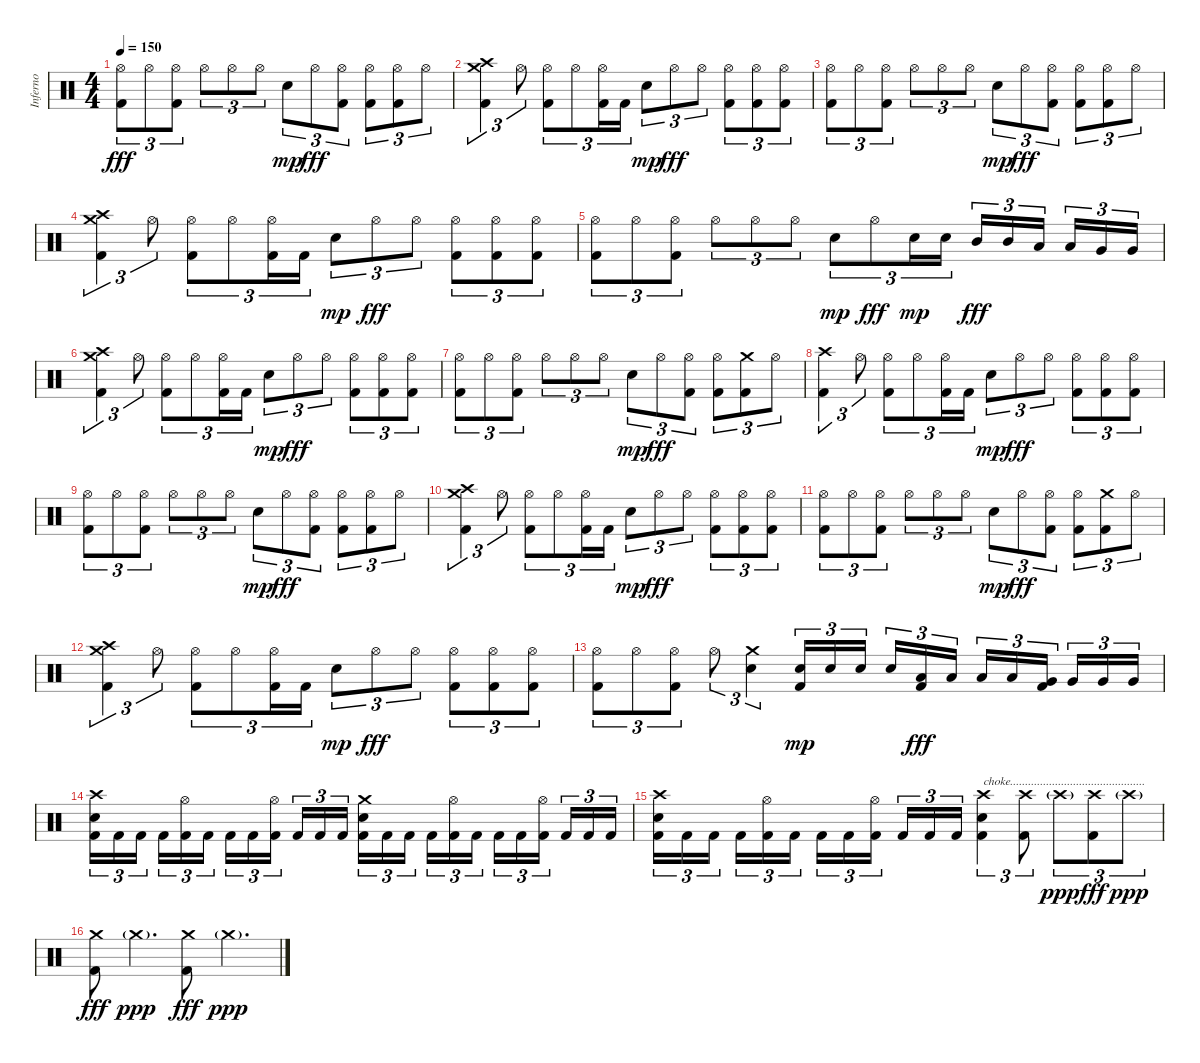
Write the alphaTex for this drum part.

\track ("Inferno" "Inferno") {instrument percussion}
\staff {score}
\articulation defaults
\ts (4 4)
\tempo 150
\clef neutral
\ks c
("Kick (hit) 2" "Hi-Hat (open)").8{tu (3 2) dy fff} "Hi-Hat (open)".8{tu (3 2)} ("Kick (hit) 2" "Hi-Hat (open)").8{tu (3 2)} "Hi-Hat (open)".8{tu (3 2)} "Hi-Hat (open)".8{tu (3 2)} "Hi-Hat (open)".8{tu (3 2)} "Electric Snare (hit)".8{tu (3 2) dy mp} "Hi-Hat (open)".8{tu (3 2) dy fff} ("Kick (hit) 2" "Hi-Hat (open)").8{tu (3 2)} ("Kick (hit) 2" "Hi-Hat (open)").8{tu (3 2)} ("Kick (hit) 2" "Hi-Hat (open)").8{tu (3 2)} "Hi-Hat (open)".8{tu (3 2)} |
("Kick (hit) 2" "Crash high (hit)" "Crash medium (hit)").4{tu (3 2)} "Hi-Hat (open)".8{tu (3 2)} ("Kick (hit) 2" "Hi-Hat (open)").8{tu (3 2)} "Hi-Hat (open)".8{tu (3 2)} ("Kick (hit) 2" "Hi-Hat (open)").16{tu (3 2)} "Kick (hit) 2".16{tu (3 2)} "Electric Snare (hit)".8{tu (3 2) dy mp} "Hi-Hat (open)".8{tu (3 2) dy fff} "Hi-Hat (open)".8{tu (3 2)} ("Kick (hit) 2" "Hi-Hat (open)").8{tu (3 2)} ("Kick (hit) 2" "Hi-Hat (open)").8{tu (3 2)} ("Kick (hit) 2" "Hi-Hat (open)").8{tu (3 2)} |
("Kick (hit) 2" "Hi-Hat (open)").8{tu (3 2)} "Hi-Hat (open)".8{tu (3 2)} ("Kick (hit) 2" "Hi-Hat (open)").8{tu (3 2)} "Hi-Hat (open)".8{tu (3 2)} "Hi-Hat (open)".8{tu (3 2)} "Hi-Hat (open)".8{tu (3 2)} "Electric Snare (hit)".8{tu (3 2) dy mp} "Hi-Hat (open)".8{tu (3 2) dy fff} ("Kick (hit) 2" "Hi-Hat (open)").8{tu (3 2)} ("Kick (hit) 2" "Hi-Hat (open)").8{tu (3 2)} ("Kick (hit) 2" "Hi-Hat (open)").8{tu (3 2)} "Hi-Hat (open)".8{tu (3 2)} |
("Kick (hit) 2" "Crash high (hit)" "Crash medium (hit)").4{tu (3 2)} "Hi-Hat (open)".8{tu (3 2)} ("Kick (hit) 2" "Hi-Hat (open)").8{tu (3 2)} "Hi-Hat (open)".8{tu (3 2)} ("Kick (hit) 2" "Hi-Hat (open)").16{tu (3 2)} "Kick (hit) 2".16{tu (3 2)} "Electric Snare (hit)".8{tu (3 2) dy mp} "Hi-Hat (open)".8{tu (3 2) dy fff} "Hi-Hat (open)".8{tu (3 2)} ("Kick (hit) 2" "Hi-Hat (open)").8{tu (3 2)} ("Kick (hit) 2" "Hi-Hat (open)").8{tu (3 2)} ("Kick (hit) 2" "Hi-Hat (open)").8{tu (3 2)} |
("Kick (hit) 2" "Hi-Hat (open)").8{tu (3 2)} "Hi-Hat (open)".8{tu (3 2)} ("Kick (hit) 2" "Hi-Hat (open)").8{tu (3 2)} "Hi-Hat (open)".8{tu (3 2)} "Hi-Hat (open)".8{tu (3 2)} "Hi-Hat (open)".8{tu (3 2)} "Electric Snare (hit)".8{tu (3 2) dy mp} "Hi-Hat (open)".8{tu (3 2) dy fff} "Electric Snare (hit)".16{tu (3 2) dy mp} "Electric Snare (hit)".16{tu (3 2)} "Mid Tom (hit)".16{tu (3 2) dy fff} "Mid Tom (hit)".16{tu (3 2)} "Low Tom (hit)".16{tu (3 2) beam splitsecondary} "Low Tom (hit)".16{tu (3 2)} "Very Low Tom (hit)".16{tu (3 2)} "Very Low Tom (hit)".16{tu (3 2)} |
("Kick (hit) 2" "Crash medium (hit)" "Crash high (hit)").4{tu (3 2)} "Hi-Hat (open)".8{tu (3 2)} ("Kick (hit) 2" "Hi-Hat (open)").8{tu (3 2)} "Hi-Hat (open)".8{tu (3 2)} ("Kick (hit) 2" "Hi-Hat (open)").16{tu (3 2)} "Kick (hit) 2".16{tu (3 2)} "Electric Snare (hit)".8{tu (3 2) dy mp} "Hi-Hat (open)".8{tu (3 2) dy fff} "Hi-Hat (open)".8{tu (3 2)} ("Kick (hit) 2" "Hi-Hat (open)").8{tu (3 2)} ("Kick (hit) 2" "Hi-Hat (open)").8{tu (3 2)} ("Kick (hit) 2" "Hi-Hat (open)").8{tu (3 2)} |
("Kick (hit) 2" "Hi-Hat (open)").8{tu (3 2)} "Hi-Hat (open)".8{tu (3 2)} ("Kick (hit) 2" "Hi-Hat (open)").8{tu (3 2)} "Hi-Hat (open)".8{tu (3 2)} "Hi-Hat (open)".8{tu (3 2)} "Hi-Hat (open)".8{tu (3 2)} "Electric Snare (hit)".8{tu (3 2) dy mp} "Hi-Hat (open)".8{tu (3 2) dy fff} ("Kick (hit) 2" "Hi-Hat (open)").8{tu (3 2)} ("Kick (hit) 2" "Hi-Hat (open)").8{tu (3 2)} ("Kick (hit) 2" "Crash medium (hit)").8{tu (3 2)} "Hi-Hat (open)".8{tu (3 2)} |
("Kick (hit) 2" "Crash high (hit)").4{tu (3 2)} "Hi-Hat (open)".8{tu (3 2)} ("Kick (hit) 2" "Hi-Hat (open)").8{tu (3 2)} "Hi-Hat (open)".8{tu (3 2)} ("Kick (hit) 2" "Hi-Hat (open)").16{tu (3 2)} "Kick (hit) 2".16{tu (3 2)} "Electric Snare (hit)".8{tu (3 2) dy mp} "Hi-Hat (open)".8{tu (3 2) dy fff} "Hi-Hat (open)".8{tu (3 2)} ("Kick (hit) 2" "Hi-Hat (open)").8{tu (3 2)} ("Kick (hit) 2" "Hi-Hat (open)").8{tu (3 2)} ("Kick (hit) 2" "Hi-Hat (open)").8{tu (3 2)} |
("Kick (hit) 2" "Hi-Hat (open)").8{tu (3 2)} "Hi-Hat (open)".8{tu (3 2)} ("Kick (hit) 2" "Hi-Hat (open)").8{tu (3 2)} "Hi-Hat (open)".8{tu (3 2)} "Hi-Hat (open)".8{tu (3 2)} "Hi-Hat (open)".8{tu (3 2)} "Electric Snare (hit)".8{tu (3 2) dy mp} "Hi-Hat (open)".8{tu (3 2) dy fff} ("Kick (hit) 2" "Hi-Hat (open)").8{tu (3 2)} ("Kick (hit) 2" "Hi-Hat (open)").8{tu (3 2)} ("Kick (hit) 2" "Hi-Hat (open)").8{tu (3 2)} "Hi-Hat (open)".8{tu (3 2)} |
("Kick (hit) 2" "Crash high (hit)" "Crash medium (hit)").4{tu (3 2)} "Hi-Hat (open)".8{tu (3 2)} ("Kick (hit) 2" "Hi-Hat (open)").8{tu (3 2)} "Hi-Hat (open)".8{tu (3 2)} ("Kick (hit) 2" "Hi-Hat (open)").16{tu (3 2)} "Kick (hit) 2".16{tu (3 2)} "Electric Snare (hit)".8{tu (3 2) dy mp} "Hi-Hat (open)".8{tu (3 2) dy fff} "Hi-Hat (open)".8{tu (3 2)} ("Kick (hit) 2" "Hi-Hat (open)").8{tu (3 2)} ("Kick (hit) 2" "Hi-Hat (open)").8{tu (3 2)} ("Kick (hit) 2" "Hi-Hat (open)").8{tu (3 2)} |
("Kick (hit) 2" "Hi-Hat (open)").8{tu (3 2)} "Hi-Hat (open)".8{tu (3 2)} ("Kick (hit) 2" "Hi-Hat (open)").8{tu (3 2)} "Hi-Hat (open)".8{tu (3 2)} "Hi-Hat (open)".8{tu (3 2)} "Hi-Hat (open)".8{tu (3 2)} "Electric Snare (hit)".8{tu (3 2) dy mp} "Hi-Hat (open)".8{tu (3 2) dy fff} ("Kick (hit) 2" "Hi-Hat (open)").8{tu (3 2)} ("Kick (hit) 2" "Hi-Hat (open)").8{tu (3 2)} ("Kick (hit) 2" "Crash medium (hit)").8{tu (3 2)} "Hi-Hat (open)".8{tu (3 2)} |
("Kick (hit) 2" "Crash high (hit)" "Crash medium (hit)").4{tu (3 2)} "Hi-Hat (open)".8{tu (3 2)} ("Kick (hit) 2" "Hi-Hat (open)").8{tu (3 2)} "Hi-Hat (open)".8{tu (3 2)} ("Kick (hit) 2" "Hi-Hat (open)").16{tu (3 2)} "Kick (hit) 2".16{tu (3 2)} "Electric Snare (hit)".8{tu (3 2) dy mp} "Hi-Hat (open)".8{tu (3 2) dy fff} "Hi-Hat (open)".8{tu (3 2)} ("Kick (hit) 2" "Hi-Hat (open)").8{tu (3 2)} ("Kick (hit) 2" "Hi-Hat (open)").8{tu (3 2)} ("Kick (hit) 2" "Hi-Hat (open)").8{tu (3 2)} |
("Kick (hit) 2" "Hi-Hat (open)").8{tu (3 2)} "Hi-Hat (open)".8{tu (3 2)} ("Kick (hit) 2" "Hi-Hat (open)").8{tu (3 2)} "Hi-Hat (open)".8{tu (3 2)} ("Electric Snare (hit)" "Crash medium (hit)").4{tu (3 2)} ("Kick (hit) 2" "Electric Snare (hit)").16{tu (3 2) dy mp} "Electric Snare (hit)".16{tu (3 2)} "Electric Snare (hit)".16{tu (3 2) beam splitsecondary} "Electric Snare (hit)".16{tu (3 2)} ("Kick (hit) 2" "Low Tom (hit)").16{tu (3 2) dy fff} "Low Tom (hit)".16{tu (3 2)} "Low Tom (hit)".16{tu (3 2)} "Low Tom (hit)".16{tu (3 2)} ("Kick (hit) 2" "Very Low Tom (hit)").16{tu (3 2) beam splitsecondary} "Very Low Tom (hit)".16{tu (3 2)} "Very Low Tom (hit)".16{tu (3 2)} "Very Low Tom (hit)".16{tu (3 2)} |
("Kick (hit) 2" "Electric Snare (hit)" "Crash high (hit)").16{tu (3 2)} "Kick (hit) 2".16{tu (3 2)} "Kick (hit) 2".16{tu (3 2) beam splitsecondary} "Kick (hit) 2".16{tu (3 2)} ("Kick (hit) 2" "Hi-Hat (open)").16{tu (3 2)} "Kick (hit) 2".16{tu (3 2)} "Kick (hit) 2".16{tu (3 2)} "Kick (hit) 2".16{tu (3 2)} ("Kick (hit) 2" "Hi-Hat (open)").16{tu (3 2) beam splitsecondary} "Kick (hit) 2".16{tu (3 2)} "Kick (hit) 2".16{tu (3 2)} "Kick (hit) 2".16{tu (3 2)} ("Kick (hit) 2" "Electric Snare (hit)" "Crash medium (hit)").16{tu (3 2)} "Kick (hit) 2".16{tu (3 2)} "Kick (hit) 2".16{tu (3 2) beam splitsecondary} "Kick (hit) 2".16{tu (3 2)} ("Kick (hit) 2" "Hi-Hat (open)").16{tu (3 2)} "Kick (hit) 2".16{tu (3 2)} "Kick (hit) 2".16{tu (3 2)} "Kick (hit) 2".16{tu (3 2)} ("Kick (hit) 2" "Hi-Hat (open)").16{tu (3 2) beam splitsecondary} "Kick (hit) 2".16{tu (3 2)} "Kick (hit) 2".16{tu (3 2)} "Kick (hit) 2".16{tu (3 2)} |
("Kick (hit) 2" "Electric Snare (hit)" "Crash high (hit)").16{tu (3 2)} "Kick (hit) 2".16{tu (3 2)} "Kick (hit) 2".16{tu (3 2) beam splitsecondary} "Kick (hit) 2".16{tu (3 2)} ("Kick (hit) 2" "Hi-Hat (open)").16{tu (3 2)} "Kick (hit) 2".16{tu (3 2)} "Kick (hit) 2".16{tu (3 2)} "Kick (hit) 2".16{tu (3 2)} ("Kick (hit) 2" "Hi-Hat (open)").16{tu (3 2) beam splitsecondary} "Kick (hit) 2".16{tu (3 2)} "Kick (hit) 2".16{tu (3 2)} "Kick (hit) 2".16{tu (3 2)} ("Kick (hit) 2" "Electric Snare (hit)" "Crash high (hit)").4{tu (3 2) txt "choke............................................."} ("Kick (hit) 2" "Crash high (hit)").8{tu (3 2)} "Crash high (hit)"{g}.8{tu (3 2) dy ppp} ("Kick (hit) 2" "Crash high (hit)").8{tu (3 2) dy fff} "Crash high (hit)"{g}.8{tu (3 2) dy ppp} |
("Kick (hit) 2" "Crash medium (hit)").8{dy fff} "Crash medium (hit)"{g}.4{d dy ppp} ("Kick (hit) 2" "Crash medium (hit)").8{dy fff} "Crash medium (hit)"{g}.4{d dy ppp}
